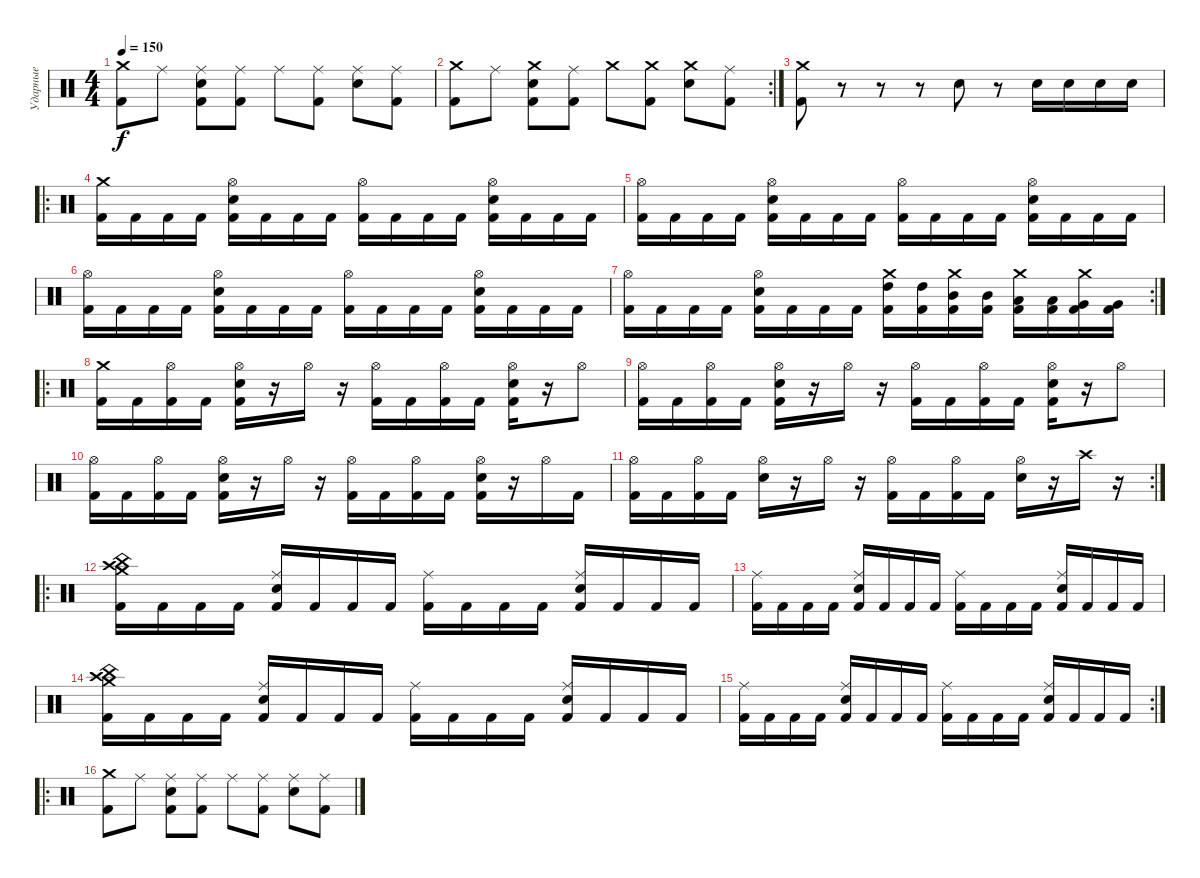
\track ("Ударные" "Ударные") {instrument percussion}
\staff {score}
\articulation defaults
\ts (4 4)
\tempo 150
\clef neutral
\ks c
("Crash medium (hit)" "Kick (hit) 2").8{dy f} "Ride (middle)".8 ("Ride (middle)" "Snare (hit) 2" "Kick (hit) 2").8 ("Ride (middle)" "Kick (hit) 2").8 "Ride (middle)".8 ("Ride (middle)" "Kick (hit) 2").8 ("Ride (middle)" "Snare (hit) 2").8 ("Ride (middle)" "Kick (hit) 2").8 |
\rc 2
("Crash medium (hit)" "Kick (hit) 2").8 "Ride (middle)".8 ("Crash medium (hit)" "Snare (hit) 2" "Kick (hit) 2").8 ("Ride (middle)" "Kick (hit) 2").8 "Crash medium (hit)".8 ("Crash medium (hit)" "Kick (hit) 2").8 ("Crash medium (hit)" "Snare (hit) 2").8 ("Ride (middle)" "Kick (hit) 2").8 |
("Crash medium (hit)" "Kick (hit) 2").8 r.8 r.8 r.8 "Snare (hit) 2".8 r.8 "Snare (hit) 2".16 "Snare (hit) 2".16 "Snare (hit) 2".16 "Snare (hit) 2".16 |
\ro
("Crash medium (hit)" "Kick (hit) 2").16 "Kick (hit) 2".16 "Kick (hit) 2".16 "Kick (hit) 2".16 ("Snare (hit) 2" "Hi-Hat (open)" "Kick (hit) 2").16 "Kick (hit) 2".16 "Kick (hit) 2".16 "Kick (hit) 2".16 ("Hi-Hat (open)" "Kick (hit) 2").16 "Kick (hit) 2".16 "Kick (hit) 2".16 "Kick (hit) 2".16 ("Snare (hit) 2" "Hi-Hat (open)" "Kick (hit) 2").16 "Kick (hit) 2".16 "Kick (hit) 2".16 "Kick (hit) 2".16 |
("Hi-Hat (open)" "Kick (hit) 2").16 "Kick (hit) 2".16 "Kick (hit) 2".16 "Kick (hit) 2".16 ("Snare (hit) 2" "Hi-Hat (open)" "Kick (hit) 2").16 "Kick (hit) 2".16 "Kick (hit) 2".16 "Kick (hit) 2".16 ("Hi-Hat (open)" "Kick (hit) 2").16 "Kick (hit) 2".16 "Kick (hit) 2".16 "Kick (hit) 2".16 ("Snare (hit) 2" "Hi-Hat (open)" "Kick (hit) 2").16 "Kick (hit) 2".16 "Kick (hit) 2".16 "Kick (hit) 2".16 |
("Hi-Hat (open)" "Kick (hit) 2").16 "Kick (hit) 2".16 "Kick (hit) 2".16 "Kick (hit) 2".16 ("Snare (hit) 2" "Hi-Hat (open)" "Kick (hit) 2").16 "Kick (hit) 2".16 "Kick (hit) 2".16 "Kick (hit) 2".16 ("Hi-Hat (open)" "Kick (hit) 2").16 "Kick (hit) 2".16 "Kick (hit) 2".16 "Kick (hit) 2".16 ("Snare (hit) 2" "Hi-Hat (open)" "Kick (hit) 2").16 "Kick (hit) 2".16 "Kick (hit) 2".16 "Kick (hit) 2".16 |
\rc 2
("Hi-Hat (open)" "Kick (hit) 2").16 "Kick (hit) 2".16 "Kick (hit) 2".16 "Kick (hit) 2".16 ("Snare (hit) 2" "Hi-Hat (open)" "Kick (hit) 2").16 "Kick (hit) 2".16 "Kick (hit) 2".16 "Kick (hit) 2".16 ("High Tom (hit)" "Crash medium (hit)" "Kick (hit) 2").16 ("High Tom (hit)" "Kick (hit) 2").16 ("Mid Tom (hit)" "Crash medium (hit)" "Kick (hit) 2").16 ("Mid Tom (hit)" "Kick (hit) 2").16 ("Low Tom (hit)" "Crash medium (hit)" "Kick (hit) 2").16 ("Low Tom (hit)" "Kick (hit) 2").16 ("Very Low Tom (hit)" "Crash medium (hit)" "Kick (hit) 2").16 ("Very Low Tom (hit)" "Kick (hit) 2").16 |
\ro
("Crash medium (hit)" "Kick (hit) 2").16 "Kick (hit) 2".16 ("Hi-Hat (open)" "Kick (hit) 2").16 "Kick (hit) 2".16 ("Hi-Hat (open)" "Snare (hit) 2" "Kick (hit) 2").16 r.16 "Hi-Hat (open)".16 r.16 ("Hi-Hat (open)" "Kick (hit) 2").16 "Kick (hit) 2".16 ("Hi-Hat (open)" "Kick (hit) 2").16 "Kick (hit) 2".16 ("Hi-Hat (open)" "Snare (hit) 2" "Kick (hit) 2").16 r.16 "Hi-Hat (open)".8 |
("Hi-Hat (open)" "Kick (hit) 2").16 "Kick (hit) 2".16 ("Hi-Hat (open)" "Kick (hit) 2").16 "Kick (hit) 2".16 ("Hi-Hat (open)" "Snare (hit) 2" "Kick (hit) 2").16 r.16 "Hi-Hat (open)".16 r.16 ("Hi-Hat (open)" "Kick (hit) 2").16 "Kick (hit) 2".16 ("Hi-Hat (open)" "Kick (hit) 2").16 "Kick (hit) 2".16 ("Hi-Hat (open)" "Snare (hit) 2" "Kick (hit) 2").16 r.16 "Hi-Hat (open)".8 |
("Hi-Hat (open)" "Kick (hit) 2").16 "Kick (hit) 2".16 ("Hi-Hat (open)" "Kick (hit) 2").16 "Kick (hit) 2".16 ("Hi-Hat (open)" "Snare (hit) 2" "Kick (hit) 2").16 r.16 "Hi-Hat (open)".16 r.16 ("Hi-Hat (open)" "Kick (hit) 2").16 "Kick (hit) 2".16 ("Hi-Hat (open)" "Kick (hit) 2").16 "Kick (hit) 2".16 ("Hi-Hat (open)" "Snare (hit) 2" "Kick (hit) 2").16 r.16 "Hi-Hat (open)".16 "Kick (hit) 2".16 |
\rc 2
("Hi-Hat (open)" "Kick (hit) 2").16 "Kick (hit) 2".16 ("Hi-Hat (open)" "Kick (hit) 2").16 "Kick (hit) 2".16 ("Hi-Hat (open)" "Snare (hit) 2").16 r.16 "Hi-Hat (open)".16 r.16 ("Hi-Hat (open)" "Kick (hit) 2").16 "Kick (hit) 2".16 ("Hi-Hat (open)" "Kick (hit) 2").16 "Kick (hit) 2".16 ("Hi-Hat (open)" "Snare (hit) 2").16 r.16 "Crash high (hit)".16 r.16 |
\ro
("Crash high (hit)" "China (hit)" "Crash medium (hit)" "Kick (hit) 2").16 "Kick (hit) 2".16 "Kick (hit) 2".16 "Kick (hit) 2".16 ("Ride (middle)" "Snare (hit) 2" "Kick (hit) 2").16 "Kick (hit) 2".16 "Kick (hit) 2".16 "Kick (hit) 2".16 ("Ride (middle)" "Kick (hit) 2").16 "Kick (hit) 2".16 "Kick (hit) 2".16 "Kick (hit) 2".16 ("Ride (middle)" "Snare (hit) 2" "Kick (hit) 2").16 "Kick (hit) 2".16 "Kick (hit) 2".16 "Kick (hit) 2".16 |
("Ride (middle)" "Kick (hit) 2").16 "Kick (hit) 2".16 "Kick (hit) 2".16 "Kick (hit) 2".16 ("Ride (middle)" "Snare (hit) 2" "Kick (hit) 2").16 "Kick (hit) 2".16 "Kick (hit) 2".16 "Kick (hit) 2".16 ("Ride (middle)" "Kick (hit) 2").16 "Kick (hit) 2".16 "Kick (hit) 2".16 "Kick (hit) 2".16 ("Ride (middle)" "Snare (hit) 2" "Kick (hit) 2").16 "Kick (hit) 2".16 "Kick (hit) 2".16 "Kick (hit) 2".16 |
("Crash high (hit)" "China (hit)" "Crash medium (hit)" "Kick (hit) 2").16 "Kick (hit) 2".16 "Kick (hit) 2".16 "Kick (hit) 2".16 ("Ride (middle)" "Snare (hit) 2" "Kick (hit) 2").16 "Kick (hit) 2".16 "Kick (hit) 2".16 "Kick (hit) 2".16 ("Ride (middle)" "Kick (hit) 2").16 "Kick (hit) 2".16 "Kick (hit) 2".16 "Kick (hit) 2".16 ("Ride (middle)" "Snare (hit) 2" "Kick (hit) 2").16 "Kick (hit) 2".16 "Kick (hit) 2".16 "Kick (hit) 2".16 |
\rc 2
("Ride (middle)" "Kick (hit) 2").16 "Kick (hit) 2".16 "Kick (hit) 2".16 "Kick (hit) 2".16 ("Ride (middle)" "Snare (hit) 2" "Kick (hit) 2").16 "Kick (hit) 2".16 "Kick (hit) 2".16 "Kick (hit) 2".16 ("Ride (middle)" "Kick (hit) 2").16 "Kick (hit) 2".16 "Kick (hit) 2".16 "Kick (hit) 2".16 ("Ride (middle)" "Snare (hit) 2" "Kick (hit) 2").16 "Kick (hit) 2".16 "Kick (hit) 2".16 "Kick (hit) 2".16 |
\ro
("Crash medium (hit)" "Kick (hit) 2").8 "Ride (middle)".8 ("Ride (middle)" "Snare (hit) 2" "Kick (hit) 2").8 ("Ride (middle)" "Kick (hit) 2").8 "Ride (middle)".8 ("Ride (middle)" "Kick (hit) 2").8 ("Ride (middle)" "Snare (hit) 2").8 ("Ride (middle)" "Kick (hit) 2").8
